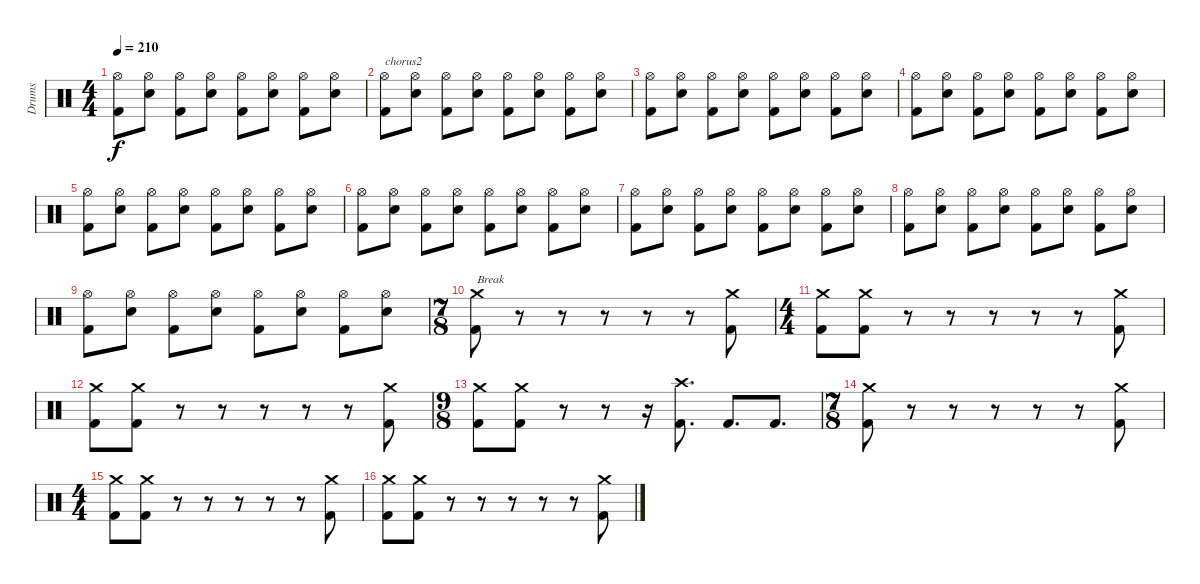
\track ("Drums" "Drums") {instrument percussion}
\staff {score}
\articulation defaults
\ts (4 4)
\tempo 210
\clef neutral
\ks c
("Kick (hit) 2" "Hi-Hat (open)").8{dy f} ("Snare (hit) 2" "Hi-Hat (open)").8 ("Kick (hit) 2" "Hi-Hat (open)").8 ("Snare (hit) 2" "Hi-Hat (open)").8 ("Kick (hit) 2" "Hi-Hat (open)").8 ("Snare (hit) 2" "Hi-Hat (open)").8 ("Kick (hit) 2" "Hi-Hat (open)").8 ("Snare (hit) 2" "Hi-Hat (open)").8 |
("Kick (hit) 2" "Hi-Hat (open)").8{txt "chorus2"} ("Snare (hit) 2" "Hi-Hat (open)").8 ("Kick (hit) 2" "Hi-Hat (open)").8 ("Snare (hit) 2" "Hi-Hat (open)").8 ("Kick (hit) 2" "Hi-Hat (open)").8 ("Snare (hit) 2" "Hi-Hat (open)").8 ("Kick (hit) 2" "Hi-Hat (open)").8 ("Snare (hit) 2" "Hi-Hat (open)").8 |
("Kick (hit) 2" "Hi-Hat (open)").8 ("Snare (hit) 2" "Hi-Hat (open)").8 ("Kick (hit) 2" "Hi-Hat (open)").8 ("Snare (hit) 2" "Hi-Hat (open)").8 ("Kick (hit) 2" "Hi-Hat (open)").8 ("Snare (hit) 2" "Hi-Hat (open)").8 ("Kick (hit) 2" "Hi-Hat (open)").8 ("Snare (hit) 2" "Hi-Hat (open)").8 |
("Kick (hit) 2" "Hi-Hat (open)").8 ("Snare (hit) 2" "Hi-Hat (open)").8 ("Kick (hit) 2" "Hi-Hat (open)").8 ("Snare (hit) 2" "Hi-Hat (open)").8 ("Kick (hit) 2" "Hi-Hat (open)").8 ("Snare (hit) 2" "Hi-Hat (open)").8 ("Kick (hit) 2" "Hi-Hat (open)").8 ("Snare (hit) 2" "Hi-Hat (open)").8 |
("Kick (hit) 2" "Hi-Hat (open)").8 ("Snare (hit) 2" "Hi-Hat (open)").8 ("Kick (hit) 2" "Hi-Hat (open)").8 ("Snare (hit) 2" "Hi-Hat (open)").8 ("Kick (hit) 2" "Hi-Hat (open)").8 ("Snare (hit) 2" "Hi-Hat (open)").8 ("Kick (hit) 2" "Hi-Hat (open)").8 ("Snare (hit) 2" "Hi-Hat (open)").8 |
("Kick (hit) 2" "Hi-Hat (open)").8 ("Snare (hit) 2" "Hi-Hat (open)").8 ("Kick (hit) 2" "Hi-Hat (open)").8 ("Snare (hit) 2" "Hi-Hat (open)").8 ("Kick (hit) 2" "Hi-Hat (open)").8 ("Snare (hit) 2" "Hi-Hat (open)").8 ("Kick (hit) 2" "Hi-Hat (open)").8 ("Snare (hit) 2" "Hi-Hat (open)").8 |
("Kick (hit) 2" "Hi-Hat (open)").8 ("Snare (hit) 2" "Hi-Hat (open)").8 ("Kick (hit) 2" "Hi-Hat (open)").8 ("Snare (hit) 2" "Hi-Hat (open)").8 ("Kick (hit) 2" "Hi-Hat (open)").8 ("Snare (hit) 2" "Hi-Hat (open)").8 ("Kick (hit) 2" "Hi-Hat (open)").8 ("Snare (hit) 2" "Hi-Hat (open)").8 |
("Kick (hit) 2" "Hi-Hat (open)").8 ("Snare (hit) 2" "Hi-Hat (open)").8 ("Kick (hit) 2" "Hi-Hat (open)").8 ("Snare (hit) 2" "Hi-Hat (open)").8 ("Kick (hit) 2" "Hi-Hat (open)").8 ("Snare (hit) 2" "Hi-Hat (open)").8 ("Kick (hit) 2" "Hi-Hat (open)").8 ("Snare (hit) 2" "Hi-Hat (open)").8 |
("Kick (hit) 2" "Hi-Hat (open)").8 ("Snare (hit) 2" "Hi-Hat (open)").8 ("Kick (hit) 2" "Hi-Hat (open)").8 ("Snare (hit) 2" "Hi-Hat (open)").8 ("Kick (hit) 2" "Hi-Hat (open)").8 ("Snare (hit) 2" "Hi-Hat (open)").8 ("Kick (hit) 2" "Hi-Hat (open)").8 ("Snare (hit) 2" "Hi-Hat (open)").8 |
\ts (7 8)
("Kick (hit) 2" "Crash medium (hit)").8{txt "Break"} r.8 r.8 r.8 r.8 r.8 ("Kick (hit) 2" "Crash medium (hit)").8 |
\ts (4 4)
("Kick (hit) 2" "Crash medium (hit)").8 ("Kick (hit) 2" "Crash medium (hit)").8 r.8 r.8 r.8 r.8 r.8 ("Kick (hit) 2" "Crash medium (hit)").8 |
("Kick (hit) 2" "Crash medium (hit)").8 ("Kick (hit) 2" "Crash medium (hit)").8 r.8 r.8 r.8 r.8 r.8 ("Kick (hit) 2" "Crash medium (hit)").8 |
\ts (9 8)
("Kick (hit) 2" "Crash medium (hit)").8 ("Kick (hit) 2" "Crash medium (hit)").8 r.8 r.8 r.16 ("Kick (hit) 2" "Crash high (hit)").8{d} "Kick (hit) 2".8{d} "Kick (hit) 2".8{d} |
\ts (7 8)
("Kick (hit) 2" "Crash medium (hit)").8 r.8 r.8 r.8 r.8 r.8 ("Kick (hit) 2" "Crash medium (hit)").8 |
\ts (4 4)
("Kick (hit) 2" "Crash medium (hit)").8 ("Kick (hit) 2" "Crash medium (hit)").8 r.8 r.8 r.8 r.8 r.8 ("Kick (hit) 2" "Crash medium (hit)").8 |
("Kick (hit) 2" "Crash medium (hit)").8 ("Kick (hit) 2" "Crash medium (hit)").8 r.8 r.8 r.8 r.8 r.8 ("Kick (hit) 2" "Crash medium (hit)").8
